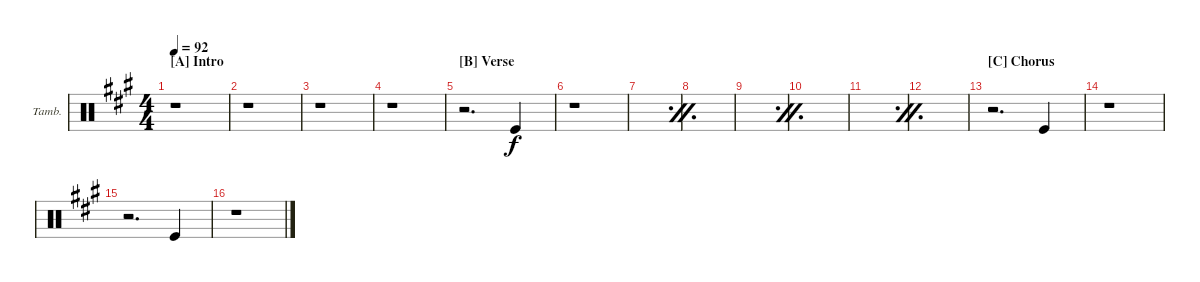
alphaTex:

\defaultSystemsLayout 4
\bracketExtendMode groupsimilarinstruments
\firstSystemTrackNameOrientation horizontal
\otherSystemsTrackNameOrientation horizontal
\track ("Tambourine" "Tamb.") {instrument percussion}
\staff {score}
\articulation defaults
\ts (4 4)
\section ("A" "Intro")
\tempo 92
\clef neutral
\ks a
r.1{dy f} |
r.1 |
r.1 |
r.1 |
\section ("B" "Verse")
r.2{d} "Kick (hit)".4 |
r.1 |
\simile firstofdouble
|
\simile secondofdouble
|
\simile firstofdouble
|
\simile secondofdouble
|
\simile firstofdouble
|
\simile secondofdouble
|
\section ("C" "Chorus")
\simile none
r.2{d} "Kick (hit)".4 |
r.1 |
r.2{d} "Kick (hit)".4 |
r.1
